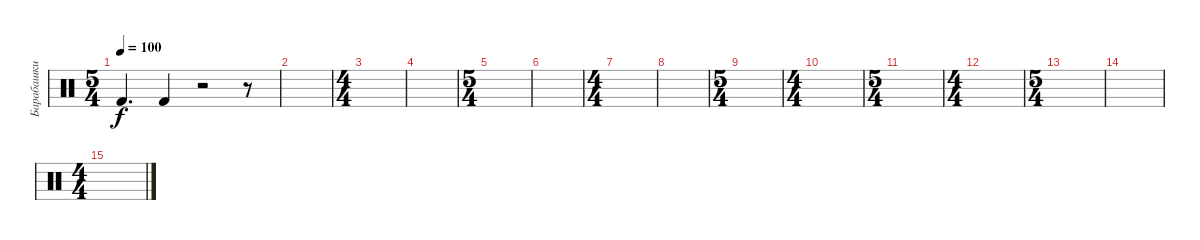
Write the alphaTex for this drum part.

\track ("Барабашки low" "Барабашки ") {instrument percussion}
\staff {score}
\articulation defaults
\ts (5 4)
\tempo 100
\clef neutral
\ks c "Kick (hit) 2".4{d dy f} "Kick (hit) 2".4
r.2 r.8 |
|
\ts (4 4)
|
|
\ts (5 4)
|
|
\ts (4 4)
|
|
\ts (5 4)
|
\ts (4 4)
|
\ts (5 4)
|
\ts (4 4)
|
\ts (5 4)
|
|
\ts (4 4)
